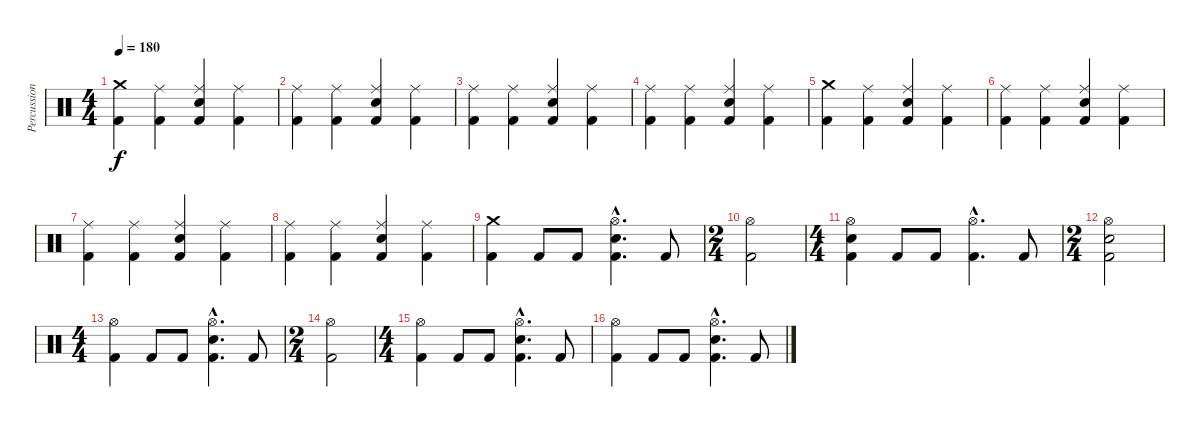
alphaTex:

\track ("Percussion" "Percussion") {instrument percussion}
\staff {score}
\articulation defaults
\ts (4 4)
\tempo 180
\clef neutral
\ks c
("Crash medium (hit)" "Kick (hit) 2").4{dy f} ("Ride (middle)" "Kick (hit) 2").4 ("Ride (middle)" "Electric Snare (hit)" "Kick (hit) 2").4 ("Ride (middle)" "Kick (hit) 2").4 |
("Ride (middle)" "Kick (hit) 2").4 ("Ride (middle)" "Kick (hit) 2").4 ("Ride (middle)" "Electric Snare (hit)" "Kick (hit) 2").4 ("Ride (middle)" "Kick (hit) 2").4 |
("Ride (middle)" "Kick (hit) 2").4 ("Ride (middle)" "Kick (hit) 2").4 ("Ride (middle)" "Electric Snare (hit)" "Kick (hit) 2").4 ("Ride (middle)" "Kick (hit) 2").4 |
("Ride (middle)" "Kick (hit) 2").4 ("Ride (middle)" "Kick (hit) 2").4 ("Ride (middle)" "Electric Snare (hit)" "Kick (hit) 2").4 ("Ride (middle)" "Kick (hit) 2").4 |
("Crash medium (hit)" "Kick (hit) 2").4 ("Ride (middle)" "Kick (hit) 2").4 ("Ride (middle)" "Electric Snare (hit)" "Kick (hit) 2").4 ("Ride (middle)" "Kick (hit) 2").4 |
("Ride (middle)" "Kick (hit) 2").4 ("Ride (middle)" "Kick (hit) 2").4 ("Ride (middle)" "Electric Snare (hit)" "Kick (hit) 2").4 ("Ride (middle)" "Kick (hit) 2").4 |
("Ride (middle)" "Kick (hit) 2").4 ("Ride (middle)" "Kick (hit) 2").4 ("Ride (middle)" "Electric Snare (hit)" "Kick (hit) 2").4 ("Ride (middle)" "Kick (hit) 2").4 |
("Ride (middle)" "Kick (hit) 2").4 ("Ride (middle)" "Kick (hit) 2").4 ("Ride (middle)" "Electric Snare (hit)" "Kick (hit) 2").4 ("Ride (middle)" "Kick (hit) 2").4 |
("Crash medium (hit)" "Kick (hit) 2").4 "Kick (hit) 2".8 "Kick (hit) 2".8 ("Hi-Hat (open)"{hac} "Electric Snare (hit)"{hac} "Kick (hit) 2"{hac}).4{d} "Kick (hit) 2".8 |
\ts (2 4)
("Hi-Hat (open)" "Kick (hit) 2").2 |
\ts (4 4)
("Hi-Hat (open)" "Electric Snare (hit)" "Kick (hit) 2").4 "Kick (hit) 2".8 "Kick (hit) 2".8 ("Hi-Hat (open)"{hac} "Kick (hit) 2"{hac}).4{d} "Kick (hit) 2".8 |
\ts (2 4)
("Hi-Hat (open)" "Electric Snare (hit)" "Kick (hit) 2").2 |
\ts (4 4)
("Hi-Hat (open)" "Kick (hit) 2").4 "Kick (hit) 2".8 "Kick (hit) 2".8 ("Hi-Hat (open)"{hac} "Electric Snare (hit)"{hac} "Kick (hit) 2"{hac}).4{d} "Kick (hit) 2".8 |
\ts (2 4)
("Hi-Hat (open)" "Kick (hit) 2").2 |
\ts (4 4)
("Hi-Hat (open)" "Kick (hit) 2").4 "Kick (hit) 2".8 "Kick (hit) 2".8 ("Hi-Hat (open)"{hac} "Electric Snare (hit)"{hac} "Kick (hit) 2"{hac}).4{d} "Kick (hit) 2".8 |
("Hi-Hat (open)" "Kick (hit) 2").4 "Kick (hit) 2".8 "Kick (hit) 2".8 ("Hi-Hat (open)"{hac} "Electric Snare (hit)"{hac} "Kick (hit) 2"{hac}).4{d} "Kick (hit) 2".8
